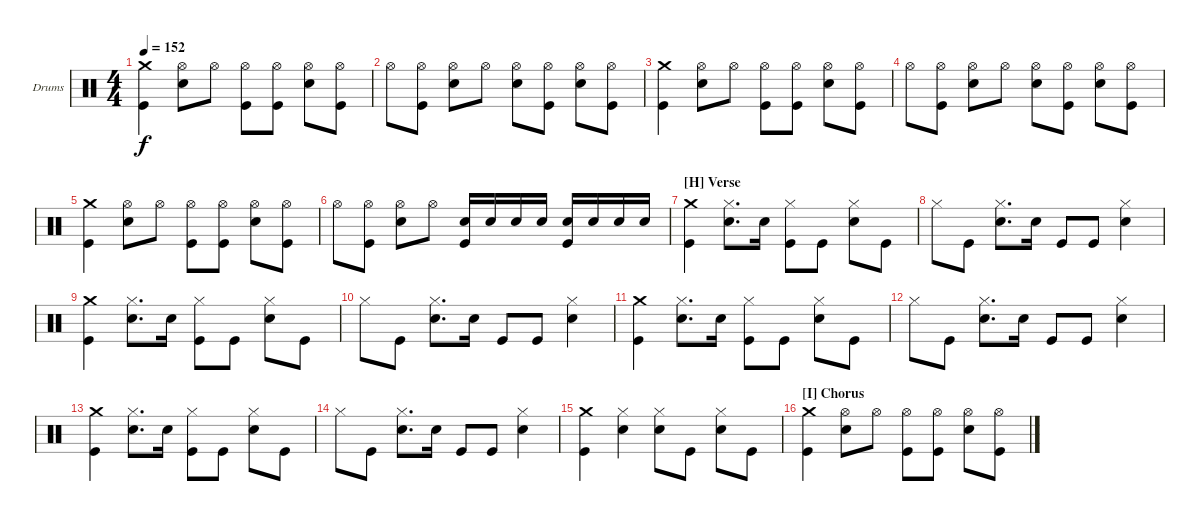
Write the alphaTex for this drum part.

\defaultSystemsLayout 4
\bracketExtendMode groupsimilarinstruments
\firstSystemTrackNameOrientation horizontal
\otherSystemsTrackNameOrientation horizontal
\track ("Drumkit" "Drums") {instrument percussion}
\staff {score}
\articulation defaults
\ts (4 4)
\tempo 152
\clef neutral
\scale
1.02648
\ks c
("Crash medium (hit)" "Kick (hit)").4{dy f} ("Hi-Hat (open)" "Snare (hit) 2").8 "Hi-Hat (open)".8 ("Hi-Hat (open)" "Kick (hit)").8 ("Hi-Hat (open)" "Kick (hit)").8 ("Hi-Hat (open)" "Snare (hit) 2").8 ("Hi-Hat (open)" "Kick (hit)").8 |
\scale
0.973518 "Hi-Hat (open)".8 ("Hi-Hat (open)" "Kick (hit)").8 ("Hi-Hat (open)" "Snare (hit) 2").8 "Hi-Hat (open)".8 ("Hi-Hat (open)" "Snare (hit) 2").8 ("Hi-Hat (open)" "Kick (hit)").8 ("Hi-Hat (open)" "Snare (hit) 2").8 ("Hi-Hat (open)" "Kick (hit)").8 |
\scale
1.02648 ("Crash medium (hit)" "Kick (hit)").4 ("Hi-Hat (open)" "Snare (hit) 2").8 "Hi-Hat (open)".8 ("Hi-Hat (open)" "Kick (hit)").8 ("Hi-Hat (open)" "Kick (hit)").8 ("Hi-Hat (open)" "Snare (hit) 2").8 ("Hi-Hat (open)" "Kick (hit)").8 |
\scale
0.973518 "Hi-Hat (open)".8 ("Hi-Hat (open)" "Kick (hit)").8 ("Hi-Hat (open)" "Snare (hit) 2").8 "Hi-Hat (open)".8 ("Hi-Hat (open)" "Snare (hit) 2").8 ("Hi-Hat (open)" "Kick (hit)").8 ("Hi-Hat (open)" "Snare (hit) 2").8 ("Hi-Hat (open)" "Kick (hit)").8 |
\scale
1.02648 ("Crash medium (hit)" "Kick (hit)").4 ("Hi-Hat (open)" "Snare (hit) 2").8 "Hi-Hat (open)".8 ("Hi-Hat (open)" "Kick (hit)").8 ("Hi-Hat (open)" "Kick (hit)").8 ("Hi-Hat (open)" "Snare (hit) 2").8 ("Hi-Hat (open)" "Kick (hit)").8 |
\scale
0.973518 "Hi-Hat (open)".8 ("Hi-Hat (open)" "Kick (hit)").8 ("Hi-Hat (open)" "Snare (hit) 2").8 "Hi-Hat (open)".8 ("Snare (hit) 2" "Kick (hit)").16 "Snare (hit) 2".16 "Snare (hit) 2".16 "Snare (hit) 2".16 ("Snare (hit) 2" "Kick (hit)").16 "Snare (hit) 2".16 "Snare (hit) 2".16 "Snare (hit) 2".16 |
\section ("H" "Verse")
\scale
1.02648 ("Crash medium (hit)" "Kick (hit)").4 ("Hi-Hat (closed)" "Snare (hit) 2").8{d} "Snare (hit) 2".16 ("Hi-Hat (closed)" "Kick (hit)").8 "Kick (hit)".8 ("Hi-Hat (closed)" "Snare (hit) 2").8 "Kick (hit)".8 |
\scale
0.973518 "Hi-Hat (closed)".8 "Kick (hit)".8 ("Hi-Hat (closed)" "Snare (hit) 2").8{d} "Snare (hit) 2".16 "Kick (hit)".8 "Kick (hit)".8 ("Hi-Hat (closed)" "Snare (hit) 2").4 |
\scale
1.02648 ("Crash medium (hit)" "Kick (hit)").4 ("Hi-Hat (closed)" "Snare (hit) 2").8{d} "Snare (hit) 2".16 ("Hi-Hat (closed)" "Kick (hit)").8 "Kick (hit)".8 ("Hi-Hat (closed)" "Snare (hit) 2").8 "Kick (hit)".8 |
\scale
0.973518 "Hi-Hat (closed)".8 "Kick (hit)".8 ("Hi-Hat (closed)" "Snare (hit) 2").8{d} "Snare (hit) 2".16 "Kick (hit)".8 "Kick (hit)".8 ("Hi-Hat (closed)" "Snare (hit) 2").4 |
\scale
1.02648 ("Crash medium (hit)" "Kick (hit)").4 ("Hi-Hat (closed)" "Snare (hit) 2").8{d} "Snare (hit) 2".16 ("Hi-Hat (closed)" "Kick (hit)").8 "Kick (hit)".8 ("Hi-Hat (closed)" "Snare (hit) 2").8 "Kick (hit)".8 |
\scale
0.973518 "Hi-Hat (closed)".8 "Kick (hit)".8 ("Hi-Hat (closed)" "Snare (hit) 2").8{d} "Snare (hit) 2".16 "Kick (hit)".8 "Kick (hit)".8 ("Hi-Hat (closed)" "Snare (hit) 2").4 |
\scale
1.02648 ("Crash medium (hit)" "Kick (hit)").4 ("Hi-Hat (closed)" "Snare (hit) 2").8{d} "Snare (hit) 2".16 ("Hi-Hat (closed)" "Kick (hit)").8 "Kick (hit)".8 ("Hi-Hat (closed)" "Snare (hit) 2").8 "Kick (hit)".8 |
\scale
0.973518 "Hi-Hat (closed)".8 "Kick (hit)".8 ("Hi-Hat (closed)" "Snare (hit) 2").8{d} "Snare (hit) 2".16 "Kick (hit)".8 "Kick (hit)".8 ("Hi-Hat (closed)" "Snare (hit) 2").4 |
\scale
1.02648 ("Crash medium (hit)" "Kick (hit)").4 ("Hi-Hat (closed)" "Snare (hit) 2").4 ("Hi-Hat (closed)" "Snare (hit) 2").8 "Kick (hit)".8 ("Hi-Hat (closed)" "Snare (hit) 2").8 "Kick (hit)".8 |
\section ("I" "Chorus")
\scale
0.973518 ("Crash medium (hit)" "Kick (hit)").4 ("Hi-Hat (open)" "Snare (hit) 2").8 "Hi-Hat (open)".8 ("Hi-Hat (open)" "Kick (hit)").8 ("Hi-Hat (open)" "Kick (hit)").8 ("Hi-Hat (open)" "Snare (hit) 2").8 ("Hi-Hat (open)" "Kick (hit)").8
